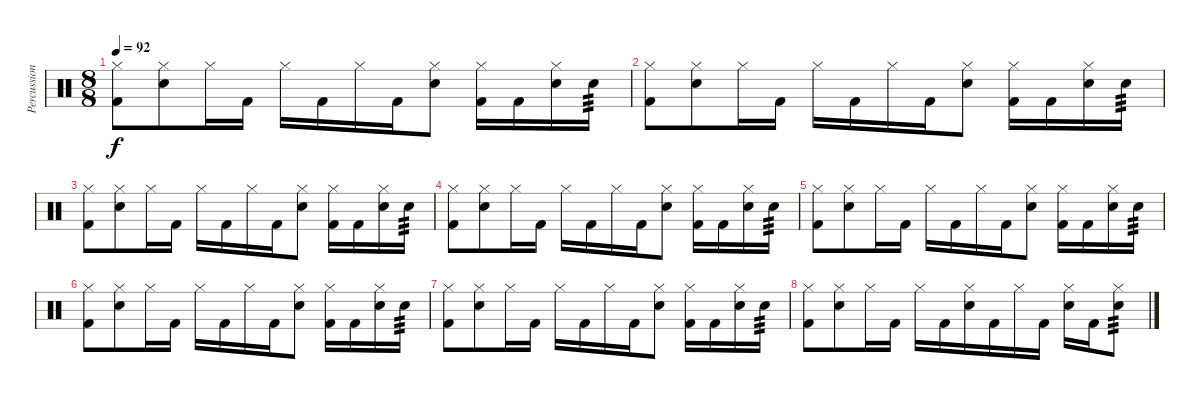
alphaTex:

\track ("Percussion" "Percussion") {instrument percussion}
\staff {score}
\articulation defaults
\ts (8 8)
\tempo 92
\clef neutral
\ks c
("Hi-Hat (closed)" "Kick (hit) 2").8{dy f} ("Hi-Hat (closed)" "Snare (hit) 2").8 "Hi-Hat (closed)".16 "Kick (hit) 2".16 "Hi-Hat (closed)".16 "Kick (hit) 2".16 "Hi-Hat (closed)".16 "Kick (hit) 2".16 ("Hi-Hat (closed)" "Snare (hit) 2").8 ("Hi-Hat (closed)" "Kick (hit) 2").16 "Kick (hit) 2".16 ("Hi-Hat (closed)" "Snare (hit) 2").16 "Snare (hit) 2".16{tp 3} |
("Hi-Hat (closed)" "Kick (hit) 2").8 ("Hi-Hat (closed)" "Snare (hit) 2").8 "Hi-Hat (closed)".16 "Kick (hit) 2".16 "Hi-Hat (closed)".16 "Kick (hit) 2".16 "Hi-Hat (closed)".16 "Kick (hit) 2".16 ("Hi-Hat (closed)" "Snare (hit) 2").8 ("Hi-Hat (closed)" "Kick (hit) 2").16 "Kick (hit) 2".16 ("Hi-Hat (closed)" "Snare (hit) 2").16 "Snare (hit) 2".16{tp 3} |
("Hi-Hat (closed)" "Kick (hit) 2").8 ("Hi-Hat (closed)" "Snare (hit) 2").8 "Hi-Hat (closed)".16 "Kick (hit) 2".16 "Hi-Hat (closed)".16 "Kick (hit) 2".16 "Hi-Hat (closed)".16 "Kick (hit) 2".16 ("Hi-Hat (closed)" "Snare (hit) 2").8 ("Hi-Hat (closed)" "Kick (hit) 2").16 "Kick (hit) 2".16 ("Hi-Hat (closed)" "Snare (hit) 2").16 "Snare (hit) 2".16{tp 3} |
("Hi-Hat (closed)" "Kick (hit) 2").8 ("Hi-Hat (closed)" "Snare (hit) 2").8 "Hi-Hat (closed)".16 "Kick (hit) 2".16 "Hi-Hat (closed)".16 "Kick (hit) 2".16 "Hi-Hat (closed)".16 "Kick (hit) 2".16 ("Hi-Hat (closed)" "Snare (hit) 2").8 ("Hi-Hat (closed)" "Kick (hit) 2").16 "Kick (hit) 2".16 ("Hi-Hat (closed)" "Snare (hit) 2").16 "Snare (hit) 2".16{tp 3} |
("Hi-Hat (closed)" "Kick (hit) 2").8 ("Hi-Hat (closed)" "Snare (hit) 2").8 "Hi-Hat (closed)".16 "Kick (hit) 2".16 "Hi-Hat (closed)".16 "Kick (hit) 2".16 "Hi-Hat (closed)".16 "Kick (hit) 2".16 ("Hi-Hat (closed)" "Snare (hit) 2").8 ("Hi-Hat (closed)" "Kick (hit) 2").16 "Kick (hit) 2".16 ("Hi-Hat (closed)" "Snare (hit) 2").16 "Snare (hit) 2".16{tp 3} |
("Hi-Hat (closed)" "Kick (hit) 2").8 ("Hi-Hat (closed)" "Snare (hit) 2").8 "Hi-Hat (closed)".16 "Kick (hit) 2".16 "Hi-Hat (closed)".16 "Kick (hit) 2".16 "Hi-Hat (closed)".16 "Kick (hit) 2".16 ("Hi-Hat (closed)" "Snare (hit) 2").8 ("Hi-Hat (closed)" "Kick (hit) 2").16 "Kick (hit) 2".16 ("Hi-Hat (closed)" "Snare (hit) 2").16 "Snare (hit) 2".16{tp 3} |
("Hi-Hat (closed)" "Kick (hit) 2").8 ("Hi-Hat (closed)" "Snare (hit) 2").8 "Hi-Hat (closed)".16 "Kick (hit) 2".16 "Hi-Hat (closed)".16 "Kick (hit) 2".16 "Hi-Hat (closed)".16 "Kick (hit) 2".16 ("Hi-Hat (closed)" "Snare (hit) 2").8 ("Hi-Hat (closed)" "Kick (hit) 2").16 "Kick (hit) 2".16 ("Hi-Hat (closed)" "Snare (hit) 2").16 "Snare (hit) 2".16{tp 3} |
("Hi-Hat (closed)" "Kick (hit) 2").8 ("Hi-Hat (closed)" "Snare (hit) 2").8 "Hi-Hat (closed)".16 "Kick (hit) 2".16 "Hi-Hat (closed)".16 "Kick (hit) 2".16 ("Hi-Hat (closed)" "Snare (hit) 2").16 "Kick (hit) 2".16 "Hi-Hat (closed)".16 "Kick (hit) 2".16 ("Hi-Hat (closed)" "Snare (hit) 2").16 "Kick (hit) 2".16 ("Hi-Hat (closed)" "Snare (hit) 2").8{tp 3}
